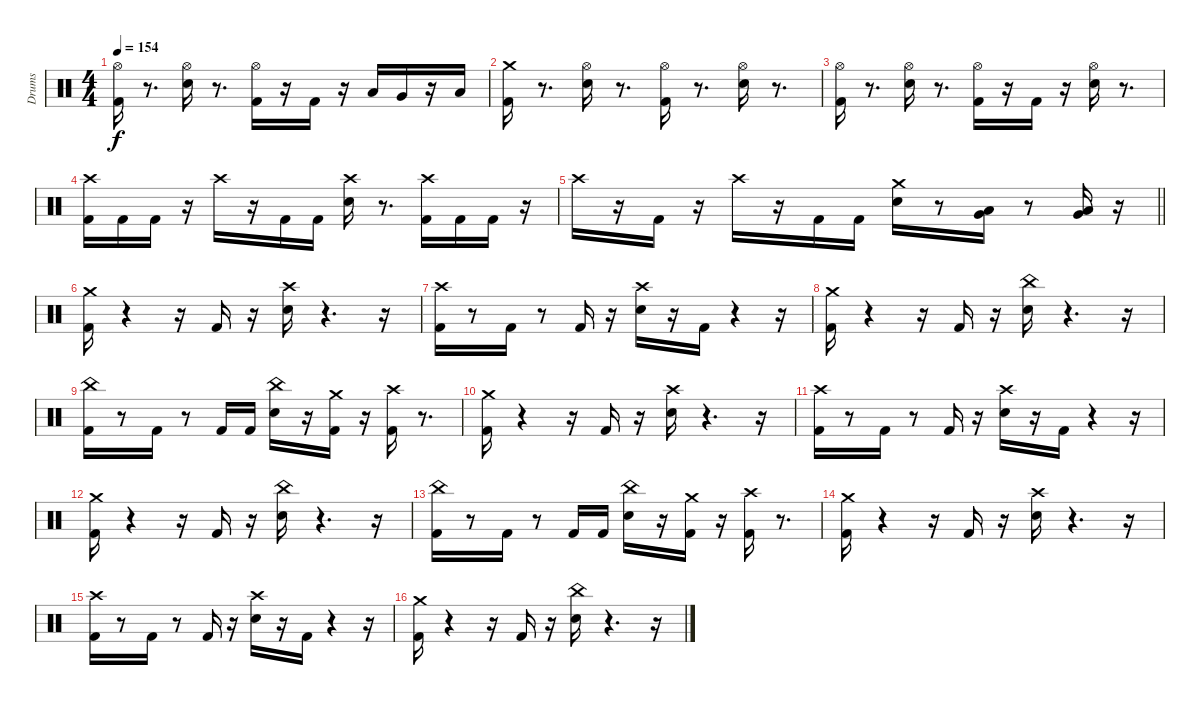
\track ("Drums" "Drums") {instrument percussion}
\staff {score}
\articulation defaults
\ts (4 4)
\tempo 154
\clef neutral
\ks c
("Kick (hit) 2" "Hi-Hat (open)").16{dy f} r.8{d} ("Snare (hit) 2" "Hi-Hat (open)").16 r.8{d} ("Kick (hit) 2" "Hi-Hat (open)").16 r.16 "Kick (hit) 2".16 r.16 "Low Tom (hit)".16 "Very Low Tom (hit)".16 r.16 "Low Floor Tom (hit)".16 |
("Kick (hit) 2" "Crash medium (hit)").16 r.8{d} ("Snare (hit) 2" "Hi-Hat (open)").16 r.8{d} ("Kick (hit) 2" "Hi-Hat (open)").16 r.8{d} ("Snare (hit) 2" "Hi-Hat (open)").16 r.8{d} |
("Kick (hit) 2" "Hi-Hat (open)").16 r.8{d} ("Snare (hit) 2" "Hi-Hat (open)").16 r.8{d} ("Kick (hit) 2" "Hi-Hat (open)").16 r.16 "Kick (hit) 2".16 r.16 ("Snare (hit) 2" "Hi-Hat (open)").16 r.8{d} |
("Kick (hit) 2" "Crash high (hit)").16 "Kick (hit) 2".16 "Kick (hit) 2".16 r.16 "Crash high (hit)".16 r.16 "Kick (hit) 2".16 "Kick (hit) 2".16 ("Snare (hit) 2" "Crash high (hit)").16 r.8{d} ("Kick (hit) 2" "Crash high (hit)").16 "Kick (hit) 2".16 "Kick (hit) 2".16 r.16 |
\barLineRight lightlight "Crash high (hit)".16
r.16 "Kick (hit) 2".16 r.16 "Crash high (hit)".16 r.16 "Kick (hit) 2".16 "Kick (hit) 2".16 ("Snare (hit) 2" "Crash medium (hit)").16 r.8 ("Very Low Tom (hit)" "Low Tom (hit)").16 r.8 ("Very Low Tom (hit)" "Low Tom (hit)").16 r.16 |
\section ("" " ")
("Kick (hit) 2" "Crash medium (hit)").16 r.4 r.16 "Kick (hit) 2".16 r.16 ("Snare (hit) 2" "Crash high (hit)").16 r.4{d} r.16 |
("Kick (hit) 2" "Crash high (hit)").16 r.8 "Kick (hit) 2".16 r.8 "Kick (hit) 2".16 r.16 ("Snare (hit) 2" "Crash high (hit)").16 r.16 "Kick (hit) 2".16 r.4 r.16 |
("Kick (hit) 2" "Crash medium (hit)").16 r.4 r.16 "Kick (hit) 2".16 r.16 ("Snare (hit) 2" "China (hit)").16 r.4{d} r.16 |
("Kick (hit) 2" "China (hit)").16 r.8 "Kick (hit) 2".16 r.8 "Kick (hit) 2".16 "Kick (hit) 2".16 ("Snare (hit) 2" "China (hit)").16 r.16 ("Kick (hit) 2" "Crash medium (hit)").16 r.16 ("Kick (hit) 2" "Crash high (hit)").16 r.8{d} |
("Kick (hit) 2" "Crash medium (hit)").16 r.4 r.16 "Kick (hit) 2".16 r.16 ("Snare (hit) 2" "Crash high (hit)").16 r.4{d} r.16 |
("Kick (hit) 2" "Crash high (hit)").16 r.8 "Kick (hit) 2".16 r.8 "Kick (hit) 2".16 r.16 ("Snare (hit) 2" "Crash high (hit)").16 r.16 "Kick (hit) 2".16 r.4 r.16 |
("Kick (hit) 2" "Crash medium (hit)").16 r.4 r.16 "Kick (hit) 2".16 r.16 ("Snare (hit) 2" "China (hit)").16 r.4{d} r.16 |
("Kick (hit) 2" "China (hit)").16 r.8 "Kick (hit) 2".16 r.8 "Kick (hit) 2".16 "Kick (hit) 2".16 ("Snare (hit) 2" "China (hit)").16 r.16 ("Kick (hit) 2" "Crash medium (hit)").16 r.16 ("Kick (hit) 2" "Crash high (hit)").16 r.8{d} |
("Kick (hit) 2" "Crash medium (hit)").16 r.4 r.16 "Kick (hit) 2".16 r.16 ("Snare (hit) 2" "Crash high (hit)").16 r.4{d} r.16 |
("Kick (hit) 2" "Crash high (hit)").16 r.8 "Kick (hit) 2".16 r.8 "Kick (hit) 2".16 r.16 ("Snare (hit) 2" "Crash high (hit)").16 r.16 "Kick (hit) 2".16 r.4 r.16 |
("Kick (hit) 2" "Crash medium (hit)").16 r.4 r.16 "Kick (hit) 2".16 r.16 ("Snare (hit) 2" "China (hit)").16 r.4{d} r.16
